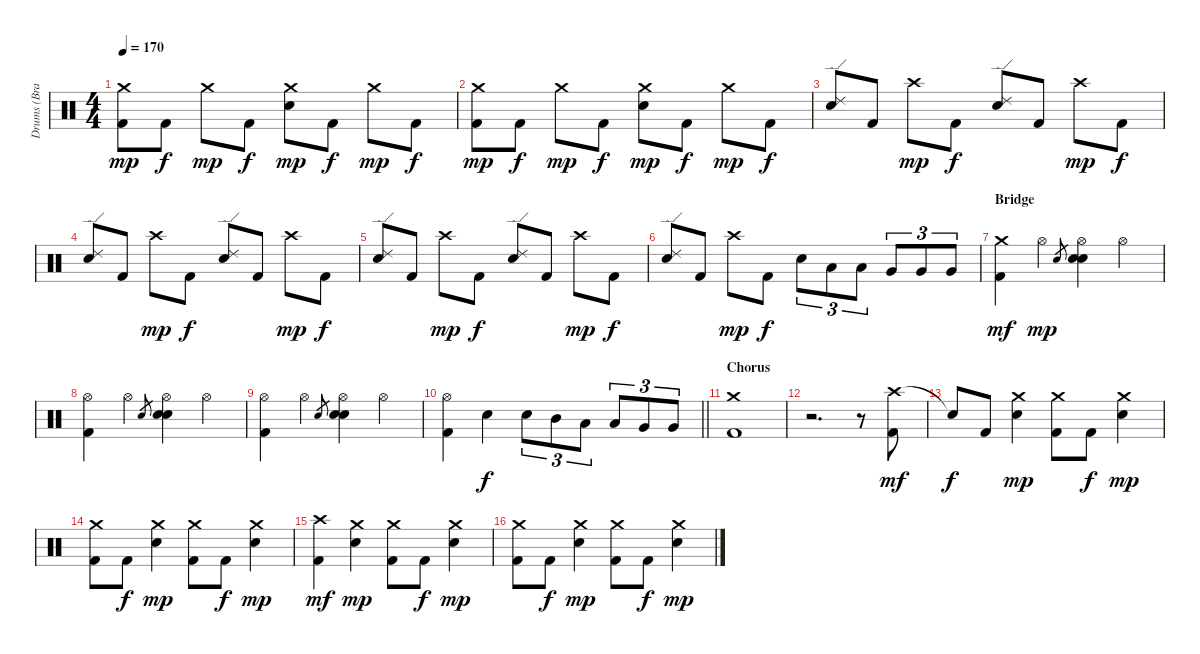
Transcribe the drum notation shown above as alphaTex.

\track ("Drums (Brandon Saller)" "Drums (Bra") {instrument percussion}
\staff {score}
\articulation defaults
\ts (4 4)
\tempo 170
\clef neutral
\ks c
("Crash medium (hit)" "Kick (hit) 2").8{dy mp} "Kick (hit) 2".8{dy f} "Crash medium (hit)".8{dy mp} "Kick (hit) 2".8{dy f} ("Crash medium (hit)" "Electric Snare (hit)").8{dy mp} "Kick (hit) 2".8{dy f} "Crash medium (hit)".8{dy mp} "Kick (hit) 2".8{dy f} |
("Crash medium (hit)" "Kick (hit) 2").8{dy mp} "Kick (hit) 2".8{dy f} "Crash medium (hit)".8{dy mp} "Kick (hit) 2".8{dy f} ("Crash medium (hit)" "Electric Snare (hit)").8{dy mp} "Kick (hit) 2".8{dy f} "Crash medium (hit)".8{dy mp} "Kick (hit) 2".8{dy f} |
("Ride (edge) 2" "Electric Snare (hit)").8 "Kick (hit) 2".8 "Crash high (hit)".8{dy mp} "Kick (hit) 2".8{dy f} ("Ride (edge) 2" "Electric Snare (hit)").8 "Kick (hit) 2".8 "Crash high (hit)".8{dy mp} "Kick (hit) 2".8{dy f} |
("Ride (edge) 2" "Electric Snare (hit)").8 "Kick (hit) 2".8 "Crash high (hit)".8{dy mp} "Kick (hit) 2".8{dy f} ("Ride (edge) 2" "Electric Snare (hit)").8 "Kick (hit) 2".8 "Crash high (hit)".8{dy mp} "Kick (hit) 2".8{dy f} |
("Ride (edge) 2" "Electric Snare (hit)").8 "Kick (hit) 2".8 "Crash high (hit)".8{dy mp} "Kick (hit) 2".8{dy f} ("Ride (edge) 2" "Electric Snare (hit)").8 "Kick (hit) 2".8 "Crash high (hit)".8{dy mp} "Kick (hit) 2".8{dy f} |
("Ride (edge) 2" "Electric Snare (hit)").8 "Kick (hit) 2".8 "Crash high (hit)".8{dy mp} "Kick (hit) 2".8{dy f} "Electric Snare (hit)".8{tu (3 2)} "Low Tom (hit)".8{tu (3 2)} "Low Tom (hit)".8{tu (3 2)} "Very Low Tom (hit)".8{tu (3 2)} "Very Low Tom (hit)".8{tu (3 2)} "Very Low Tom (hit)".8{tu (3 2)} |
\section ("" "Bridge")
("Crash medium (hit)" "Kick (hit) 2").4{dy mf} "Hi-Hat (open)".4{dy mp} "Hand Clap (hit)".8{gr} ("Hi-Hat (open)" "Hand Clap (hit)" "Electric Snare (hit)").4 "Hi-Hat (open)".4 |
("Hi-Hat (open)" "Kick (hit) 2").4 "Hi-Hat (open)".4 "Hand Clap (hit)".8{gr} ("Hi-Hat (open)" "Hand Clap (hit)" "Electric Snare (hit)").4 "Hi-Hat (open)".4 |
("Hi-Hat (open)" "Kick (hit) 2").4 "Hi-Hat (open)".4 "Hand Clap (hit)".8{gr} ("Hi-Hat (open)" "Hand Clap (hit)" "Electric Snare (hit)").4 "Hi-Hat (open)".4 |
\barLineRight lightlight
("Hi-Hat (open)" "Kick (hit) 2").4 "Electric Snare (hit)".4{dy f} "Electric Snare (hit)".8{tu (3 2)} "Mid Tom (hit)".8{tu (3 2)} "Low Tom (hit)".8{tu (3 2)} "Low Tom (hit)".8{tu (3 2)} "Very Low Tom (hit)".8{tu (3 2)} "Very Low Tom (hit)".8{tu (3 2)} |
\section ("" "Chorus")
("Crash medium (hit)" "Kick (hit) 2").1 |
r.2{d} r.8 ("Crash high (hit)" "Kick (hit) 2").8{dy mf} |
"Snare (hit)"{t}.8{dy f} "Kick (hit) 2".8 ("Crash medium (hit)" "Electric Snare (hit)").4{dy mp} ("Crash medium (hit)" "Kick (hit) 2").8 "Kick (hit) 2".8{dy f} ("Crash medium (hit)" "Electric Snare (hit)").4{dy mp} |
("Crash medium (hit)" "Kick (hit) 2").8 "Kick (hit) 2".8{dy f} ("Crash medium (hit)" "Electric Snare (hit)").4{dy mp} ("Crash medium (hit)" "Kick (hit) 2").8 "Kick (hit) 2".8{dy f} ("Crash medium (hit)" "Electric Snare (hit)").4{dy mp} |
("Crash high (hit)" "Kick (hit) 2").4{dy mf} ("Crash medium (hit)" "Electric Snare (hit)").4{dy mp} ("Crash medium (hit)" "Kick (hit) 2").8 "Kick (hit) 2".8{dy f} ("Crash medium (hit)" "Electric Snare (hit)").4{dy mp} |
("Crash medium (hit)" "Kick (hit) 2").8 "Kick (hit) 2".8{dy f} ("Crash medium (hit)" "Electric Snare (hit)").4{dy mp} ("Crash medium (hit)" "Kick (hit) 2").8 "Kick (hit) 2".8{dy f} ("Crash medium (hit)" "Electric Snare (hit)").4{dy mp}
